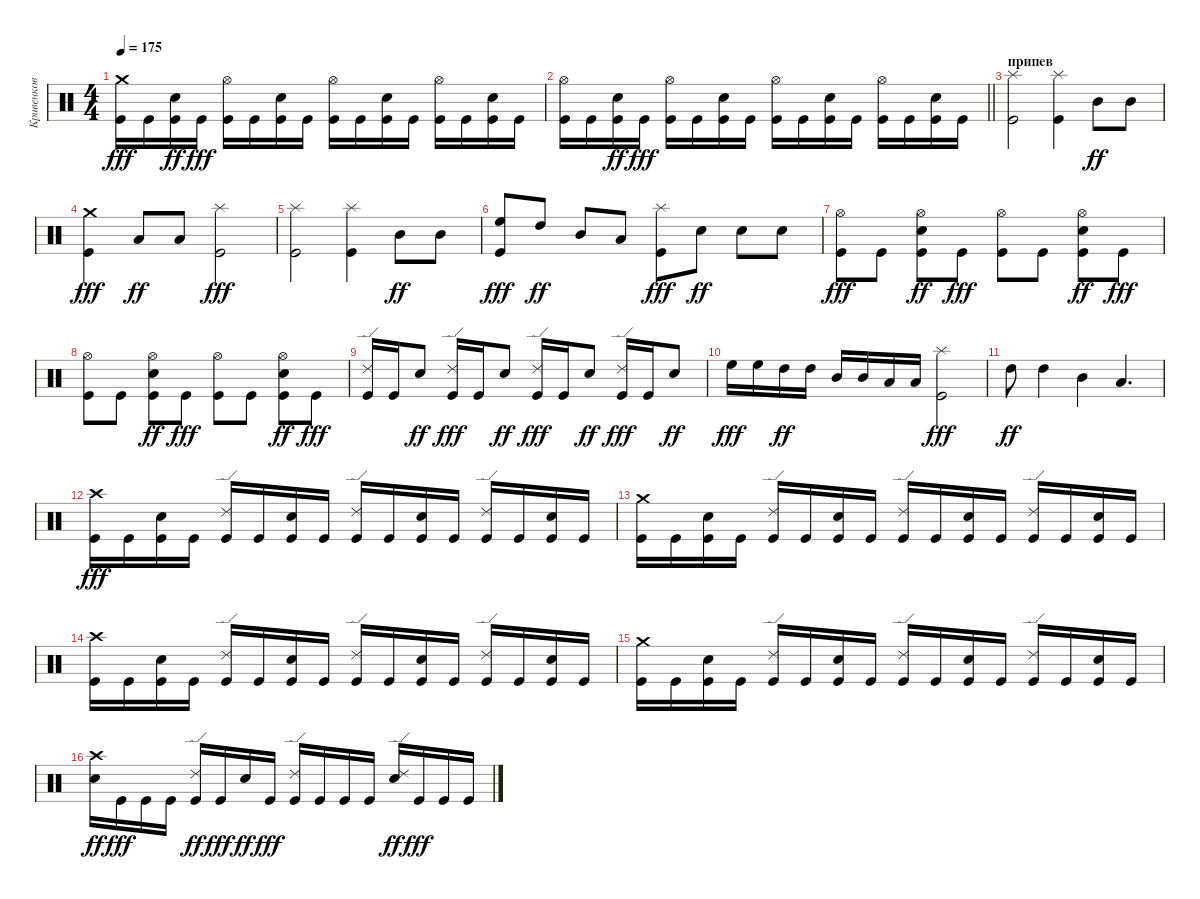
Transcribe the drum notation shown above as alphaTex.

\track ("Кривенков" "Кривенков") {instrument percussion}
\staff {score}
\articulation defaults
\ts (4 4)
\tempo 175
\clef neutral
\ks c
("Crash medium (hit)" "Kick (hit)").16{dy fff} "Kick (hit)".16 ("Kick (hit)" "Snare (hit) 2").16{dy ff} "Kick (hit)".16{dy fff} ("Hi-Hat (open)" "Kick (hit)").16 "Kick (hit)".16 ("Snare (hit) 2" "Kick (hit)").16 "Kick (hit)".16 ("Hi-Hat (open)" "Kick (hit)").16 "Kick (hit)".16 ("Snare (hit) 2" "Kick (hit)").16 "Kick (hit)".16 ("Hi-Hat (open)" "Kick (hit)").16 "Kick (hit)".16 ("Snare (hit) 2" "Kick (hit)").16 "Kick (hit)".16 |
\barLineRight lightlight
("Hi-Hat (open)" "Kick (hit)").16 "Kick (hit)".16 ("Kick (hit)" "Snare (hit) 2").16{dy ff} "Kick (hit)".16{dy fff} ("Hi-Hat (open)" "Kick (hit)").16 "Kick (hit)".16 ("Snare (hit) 2" "Kick (hit)").16 "Kick (hit)".16 ("Hi-Hat (open)" "Kick (hit)").16 "Kick (hit)".16 ("Snare (hit) 2" "Kick (hit)").16 "Kick (hit)".16 ("Hi-Hat (open)" "Kick (hit)").16 "Kick (hit)".16 ("Snare (hit) 2" "Kick (hit)").16 "Kick (hit)".16 |
\section ("" "припев")
("Splash (hit)" "Kick (hit)").2 ("Splash (hit)" "Kick (hit)").4 "Mid Tom (hit)".8{dy ff} "Mid Tom (hit)".8 |
("Crash medium (hit)" "Kick (hit)").4{dy fff} "Low Tom (hit)".8{dy ff} "Low Tom (hit)".8 ("Splash (hit)" "Kick (hit)").2{dy fff} |
("Splash (hit)" "Kick (hit)").2 ("Splash (hit)" "Kick (hit)").4 "Mid Tom (hit)".8{dy ff} "Mid Tom (hit)".8 |
("High Floor Tom (hit)" "Kick (hit)").8{dy fff} "High Tom (hit)".8{dy ff} "Mid Tom (hit)".8 "Low Tom (hit)".8 ("Splash (hit)" "Kick (hit)").8{dy fff} "Snare (hit) 2".8{dy ff} "Snare (hit) 2".8 "Snare (hit) 2".8 |
("Hi-Hat (open)" "Kick (hit)").8{dy fff} "Kick (hit)".8 ("Hi-Hat (open)" "Kick (hit)" "Snare (hit) 2").8{dy ff} "Kick (hit)".8{dy fff} ("Hi-Hat (open)" "Kick (hit)").8 "Kick (hit)".8 ("Hi-Hat (open)" "Kick (hit)" "Snare (hit) 2").8{dy ff} "Kick (hit)".8{dy fff} |
("Hi-Hat (open)" "Kick (hit)").8 "Kick (hit)".8 ("Hi-Hat (open)" "Kick (hit)" "Snare (hit) 2").8{dy ff} "Kick (hit)".8{dy fff} ("Hi-Hat (open)" "Kick (hit)").8 "Kick (hit)".8 ("Hi-Hat (open)" "Kick (hit)" "Snare (hit) 2").8{dy ff} "Kick (hit)".8{dy fff} |
("Ride (edge) 2" "Kick (hit)").16 "Kick (hit)".16 "Snare (hit) 2".8{dy ff} ("Ride (edge) 2" "Kick (hit)").16{dy fff} "Kick (hit)".16 "Snare (hit) 2".8{dy ff} ("Ride (edge) 2" "Kick (hit)").16{dy fff} "Kick (hit)".16 "Snare (hit) 2".8{dy ff} ("Ride (edge) 2" "Kick (hit)").16{dy fff} "Kick (hit)".16 "Snare (hit) 2".8{dy ff} |
"High Floor Tom (hit)".16{dy fff} "High Floor Tom (hit)".16 "High Tom (hit)".16{dy ff} "High Tom (hit)".16 "Mid Tom (hit)".16 "Mid Tom (hit)".16 "Low Tom (hit)".16 "Low Tom (hit)".16 ("Splash (hit)" "Kick (hit)").2{dy fff} |
"High Tom (hit)".8{dy ff} "High Tom (hit)".4 "Mid Tom (hit)".4 "Low Tom (hit)".4{d} |
("Crash high (hit)" "Kick (hit)").16{dy fff} "Kick (hit)".16 ("Snare (hit) 2" "Kick (hit)").16 "Kick (hit)".16 ("Ride (edge) 2" "Kick (hit)").16 "Kick (hit)".16 ("Snare (hit) 2" "Kick (hit)").16 "Kick (hit)".16 ("Ride (edge) 2" "Kick (hit)").16 "Kick (hit)".16 ("Snare (hit) 2" "Kick (hit)").16 "Kick (hit)".16 ("Ride (edge) 2" "Kick (hit)").16 "Kick (hit)".16 ("Snare (hit) 2" "Kick (hit)").16 "Kick (hit)".16 |
("Crash medium (hit)" "Kick (hit)").16 "Kick (hit)".16 ("Snare (hit) 2" "Kick (hit)").16 "Kick (hit)".16 ("Ride (edge) 2" "Kick (hit)").16 "Kick (hit)".16 ("Snare (hit) 2" "Kick (hit)").16 "Kick (hit)".16 ("Ride (edge) 2" "Kick (hit)").16 "Kick (hit)".16 ("Snare (hit) 2" "Kick (hit)").16 "Kick (hit)".16 ("Ride (edge) 2" "Kick (hit)").16 "Kick (hit)".16 ("Snare (hit) 2" "Kick (hit)").16 "Kick (hit)".16 |
("Crash high (hit)" "Kick (hit)").16 "Kick (hit)".16 ("Snare (hit) 2" "Kick (hit)").16 "Kick (hit)".16 ("Ride (edge) 2" "Kick (hit)").16 "Kick (hit)".16 ("Snare (hit) 2" "Kick (hit)").16 "Kick (hit)".16 ("Ride (edge) 2" "Kick (hit)").16 "Kick (hit)".16 ("Snare (hit) 2" "Kick (hit)").16 "Kick (hit)".16 ("Ride (edge) 2" "Kick (hit)").16 "Kick (hit)".16 ("Snare (hit) 2" "Kick (hit)").16 "Kick (hit)".16 |
("Crash medium (hit)" "Kick (hit)").16 "Kick (hit)".16 ("Snare (hit) 2" "Kick (hit)").16 "Kick (hit)".16 ("Ride (edge) 2" "Kick (hit)").16 "Kick (hit)".16 ("Snare (hit) 2" "Kick (hit)").16 "Kick (hit)".16 ("Ride (edge) 2" "Kick (hit)").16 "Kick (hit)".16 ("Snare (hit) 2" "Kick (hit)").16 "Kick (hit)".16 ("Ride (edge) 2" "Kick (hit)").16 "Kick (hit)".16 ("Snare (hit) 2" "Kick (hit)").16 "Kick (hit)".16 |
("Crash high (hit)" "Snare (hit) 2").16{dy ff} "Kick (hit)".16{dy fff} "Kick (hit)".16 "Kick (hit)".16 ("Kick (hit)" "Ride (edge) 2").16{dy ff} "Kick (hit)".16{dy fff} "Snare (hit) 2".16{dy ff} "Kick (hit)".16{dy fff} ("Ride (edge) 2" "Kick (hit)").16 "Kick (hit)".16 "Kick (hit)".16 "Kick (hit)".16 ("Ride (edge) 2" "Snare (hit) 2").16{dy ff} "Kick (hit)".16{dy fff} "Kick (hit)".16 "Kick (hit)".16
